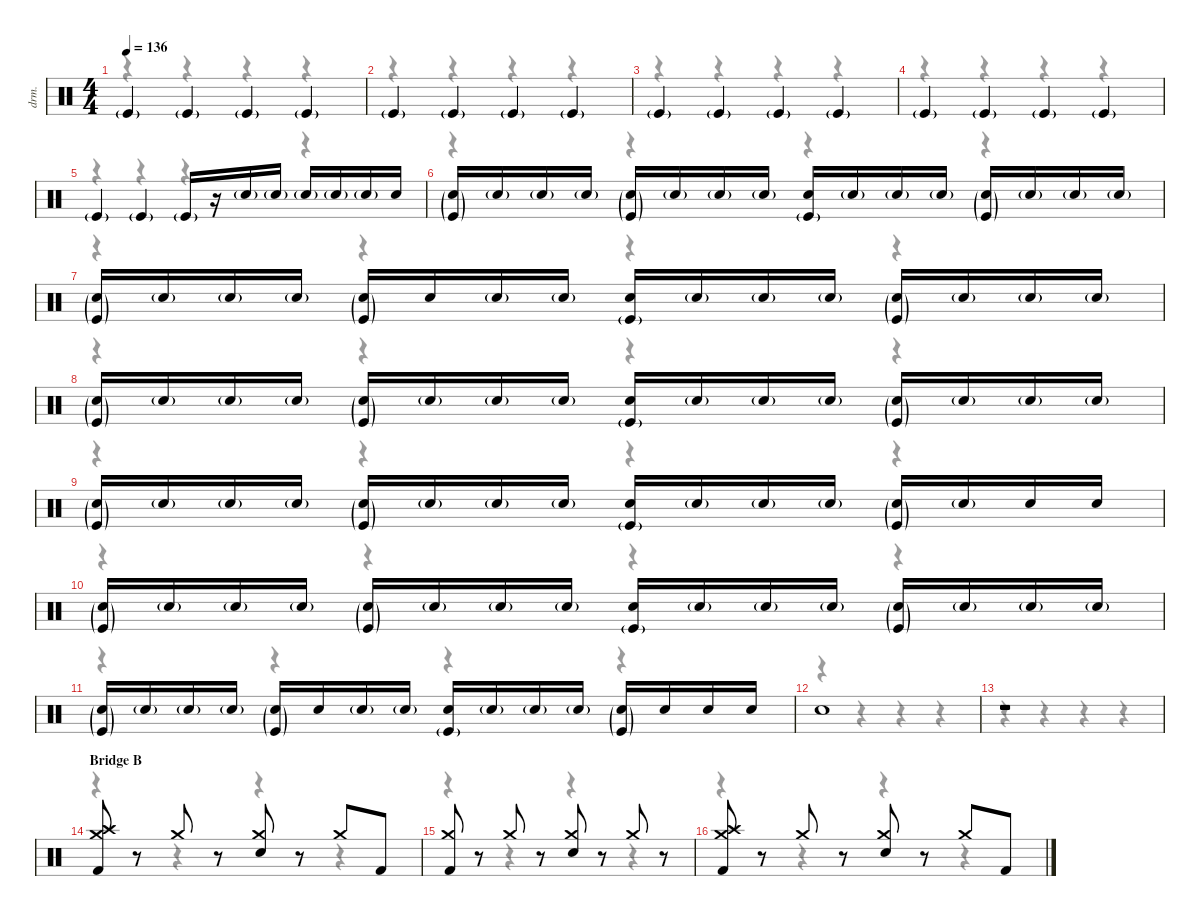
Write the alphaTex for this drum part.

\defaultSystemsLayout 4
\hideDynamics
\bracketExtendMode nobrackets
\track ("Drums" "drm.") {instrument percussion}
\staff {score}
\articulation defaults
\voice
\ts (4 4)
\tempo 136
\clef neutral
\ks c "Kick (hit)"{g}.4{dy f beam Up} "Kick (hit)"{g}.4{beam Up} "Kick (hit)"{g}.4{beam Up} "Kick (hit)"{g}.4{beam Up}
|
"Kick (hit)"{g}.4{beam Up} "Kick (hit)"{g}.4{beam Up} "Kick (hit)"{g}.4{beam Up} "Kick (hit)"{g}.4{beam Up} |
"Kick (hit)"{g}.4{beam Up} "Kick (hit)"{g}.4{beam Up} "Kick (hit)"{g}.4{beam Up} "Kick (hit)"{g}.4{beam Up} |
"Kick (hit)"{g}.4{beam Up} "Kick (hit)"{g}.4{beam Up} "Kick (hit)"{g}.4{beam Up} "Kick (hit)"{g}.4{beam Up} |
"Kick (hit)"{g}.4{beam Up} "Kick (hit)"{g}.4{beam Up} "Kick (hit)"{g}.16{beam Up} r.16{beam Up} "Snare (hit) 2"{g}.16{beam Up} "Snare (hit) 2"{g}.16{beam Up} "Snare (hit) 2"{g}.16{beam Up} "Snare (hit) 2"{g}.16{beam Up} "Snare (hit) 2"{g}.16{beam Up} "Snare (hit) 2".16{dy mf beam Up} |
("Snare (hit) 2"{g} "Kick (hit)"{g}).16{dy f beam Up} "Snare (hit) 2"{g}.16{beam Up} "Snare (hit) 2"{g}.16{beam Up} "Snare (hit) 2"{g}.16{beam Up} ("Snare (hit) 2"{g} "Kick (hit)"{g}).16{beam Up} "Snare (hit) 2"{g}.16{beam Up} "Snare (hit) 2"{g}.16{beam Up} "Snare (hit) 2"{g}.16{beam Up} ("Snare (hit) 2" "Kick (hit)"{g}).16{beam Up} "Snare (hit) 2"{g}.16{beam Up} "Snare (hit) 2"{g}.16{beam Up} "Snare (hit) 2"{g}.16{beam Up} ("Snare (hit) 2"{g} "Kick (hit)"{g}).16{beam Up} "Snare (hit) 2"{g}.16{beam Up} "Snare (hit) 2"{g}.16{beam Up} "Snare (hit) 2"{g}.16{beam Up} |
("Snare (hit) 2"{g} "Kick (hit)"{g}).16{beam Up} "Snare (hit) 2"{g}.16{beam Up} "Snare (hit) 2"{g}.16{beam Up} "Snare (hit) 2"{g}.16{beam Up} ("Snare (hit) 2"{g} "Kick (hit)"{g}).16{beam Up} "Snare (hit) 2".16{beam Up} "Snare (hit) 2"{g}.16{beam Up} "Snare (hit) 2"{g}.16{beam Up} ("Snare (hit) 2" "Kick (hit)"{g}).16{beam Up} "Snare (hit) 2"{g}.16{beam Up} "Snare (hit) 2"{g}.16{beam Up} "Snare (hit) 2"{g}.16{beam Up} ("Snare (hit) 2"{g} "Kick (hit)"{g}).16{beam Up} "Snare (hit) 2"{g}.16{beam Up} "Snare (hit) 2"{g}.16{beam Up} "Snare (hit) 2"{g}.16{beam Up} |
("Snare (hit) 2"{g} "Kick (hit)"{g}).16{beam Up} "Snare (hit) 2"{g}.16{beam Up} "Snare (hit) 2"{g}.16{beam Up} "Snare (hit) 2"{g}.16{beam Up} ("Snare (hit) 2"{g} "Kick (hit)"{g}).16{beam Up} "Snare (hit) 2"{g}.16{beam Up} "Snare (hit) 2"{g}.16{beam Up} "Snare (hit) 2"{g}.16{beam Up} ("Snare (hit) 2" "Kick (hit)"{g}).16{beam Up} "Snare (hit) 2"{g}.16{beam Up} "Snare (hit) 2"{g}.16{beam Up} "Snare (hit) 2"{g}.16{beam Up} ("Snare (hit) 2"{g} "Kick (hit)"{g}).16{beam Up} "Snare (hit) 2"{g}.16{beam Up} "Snare (hit) 2"{g}.16{beam Up} "Snare (hit) 2"{g}.16{beam Up} |
("Snare (hit) 2"{g} "Kick (hit)"{g}).16{beam Up} "Snare (hit) 2"{g}.16{beam Up} "Snare (hit) 2"{g}.16{beam Up} "Snare (hit) 2"{g}.16{beam Up} ("Snare (hit) 2"{g} "Kick (hit)"{g}).16{beam Up} "Snare (hit) 2"{g}.16{beam Up} "Snare (hit) 2"{g}.16{beam Up} "Snare (hit) 2"{g}.16{beam Up} ("Snare (hit) 2" "Kick (hit)"{g}).16{beam Up} "Snare (hit) 2"{g}.16{beam Up} "Snare (hit) 2"{g}.16{beam Up} "Snare (hit) 2"{g}.16{beam Up} ("Snare (hit) 2"{g} "Kick (hit)"{g}).16{beam Up} "Snare (hit) 2"{g}.16{dy ff beam Up} "Snare (hit) 2".16{dy f beam Up} "Snare (hit) 2".16{beam Up} |
("Snare (hit) 2"{g} "Kick (hit)"{g}).16{beam Up} "Snare (hit) 2"{g}.16{beam Up} "Snare (hit) 2"{g}.16{beam Up} "Snare (hit) 2"{g}.16{beam Up} ("Snare (hit) 2"{g} "Kick (hit)"{g}).16{beam Up} "Snare (hit) 2"{g}.16{beam Up} "Snare (hit) 2"{g}.16{beam Up} "Snare (hit) 2"{g}.16{beam Up} ("Snare (hit) 2" "Kick (hit)"{g}).16{beam Up} "Snare (hit) 2"{g}.16{beam Up} "Snare (hit) 2"{g}.16{beam Up} "Snare (hit) 2"{g}.16{beam Up} ("Snare (hit) 2"{g} "Kick (hit)"{g}).16{beam Up} "Snare (hit) 2"{g}.16{beam Up} "Snare (hit) 2"{g}.16{beam Up} "Snare (hit) 2"{g}.16{beam Up} |
("Snare (hit) 2"{g} "Kick (hit)"{g}).16{beam Up} "Snare (hit) 2"{g}.16{beam Up} "Snare (hit) 2"{g}.16{beam Up} "Snare (hit) 2"{g}.16{beam Up} ("Snare (hit) 2"{g} "Kick (hit)"{g}).16{beam Up} "Snare (hit) 2".16{beam Up} "Snare (hit) 2"{g}.16{beam Up} "Snare (hit) 2"{g}.16{beam Up} ("Snare (hit) 2" "Kick (hit)"{g}).16{beam Up} "Snare (hit) 2"{g}.16{beam Up} "Snare (hit) 2"{g}.16{beam Up} "Snare (hit) 2"{g}.16{beam Up} ("Snare (hit) 2"{g} "Kick (hit)"{g}).16{beam Up} "Snare (hit) 2".16{beam Up} "Snare (hit) 2".16{beam Up} "Snare (hit) 2".16{beam Up} |
"Snare (hit) 2".1{beam Up} |
r.1{beam Up} |
\section ("" "Bridge B")
("Crash medium (hit)" "Crash high (hit)" "Kick (hit) 2").8{beam Up} r.8{beam Up} "Crash medium (hit)".8{beam Up} r.8{beam Up} ("Crash medium (hit)" "Snare (hit) 2").8{beam Up} r.8{beam Up} "Crash medium (hit)".8{beam Up} "Kick (hit) 2".8{beam Up} |
("Crash medium (hit)" "Kick (hit) 2").8{beam Up} r.8{beam Up} "Crash medium (hit)".8{beam Up} r.8{beam Up} ("Crash medium (hit)" "Snare (hit) 2").8{beam Up} r.8{beam Up} "Crash medium (hit)".8{beam Up} r.8{beam Up} |
("Crash medium (hit)" "Crash high (hit)" "Kick (hit) 2").8{beam Up} r.8{beam Up} "Crash medium (hit)".8{beam Up} r.8{beam Up} ("Crash medium (hit)" "Snare (hit) 2").8{beam Up} r.8{beam Up} "Crash medium (hit)".8{beam Up} "Kick (hit) 2".8{beam Up}
\voice
\clef neutral
\ottava regular
\simile none
\ks c
r.4{dy mf beam Down} r.4{beam Down} r.4{beam Down} r.4{beam Down} |
r.4{beam Down} r.4{beam Down} r.4{beam Down} r.4{beam Down} |
r.4{beam Down} r.4{beam Down} r.4{beam Down} r.4{beam Down} |
r.4{beam Down} r.4{beam Down} r.4{beam Down} r.4{beam Down} |
r.4{beam Down} r.4{beam Down} r.4{beam Down} r.4{beam Down} |
r.4{beam Down} r.4{beam Down} r.4{beam Down} r.4{beam Down} |
r.4{beam Down} r.4{beam Down} r.4{beam Down} r.4{beam Down} |
r.4{beam Down} r.4{beam Down} r.4{beam Down} r.4{beam Down} |
r.4{beam Down} r.4{beam Down} r.4{beam Down} r.4{beam Down} |
r.4{beam Down} r.4{beam Down} r.4{beam Down} r.4{beam Down} |
r.4{beam Down} r.4{beam Down} r.4{beam Down} r.4{beam Down} |
r.4{beam Down} r.4{beam Down} r.4{beam Down} r.4{beam Down} |
r.4{beam Down} r.4{beam Down} r.4{beam Down} r.4{beam Down} |
r.4{beam Down} r.4{beam Down} r.4{beam Down} r.4{beam Down} |
r.4{beam Down} r.4{beam Down} r.4{beam Down} r.4{beam Down} |
r.4{beam Down} r.4{beam Down} r.4{beam Down} r.4{beam Down}
